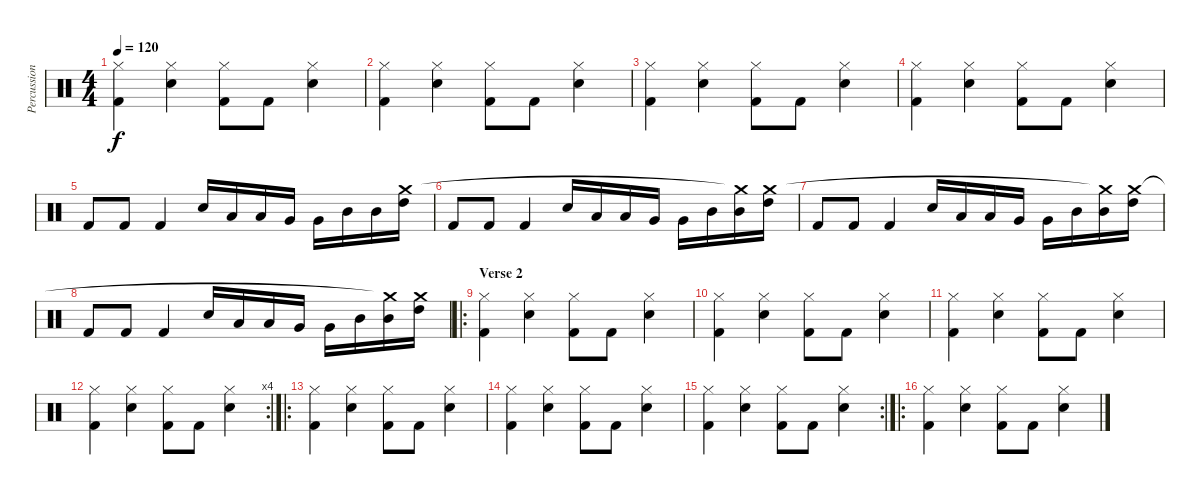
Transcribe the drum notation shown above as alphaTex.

\track ("Percussions" "Percussion") {instrument percussion}
\staff {score}
\articulation defaults
\ts (4 4)
\tempo 120
\clef neutral
\ks c
("Kick (hit) 2" "Hi-Hat (closed)").4{dy f} ("Electric Snare (hit)" "Hi-Hat (closed)").4 ("Kick (hit) 2" "Hi-Hat (closed)").8 "Kick (hit) 2".8 ("Electric Snare (hit)" "Hi-Hat (closed)").4 |
("Kick (hit) 2" "Hi-Hat (closed)").4 ("Electric Snare (hit)" "Hi-Hat (closed)").4 ("Kick (hit) 2" "Hi-Hat (closed)").8 "Kick (hit) 2".8 ("Electric Snare (hit)" "Hi-Hat (closed)").4 |
("Kick (hit) 2" "Hi-Hat (closed)").4 ("Electric Snare (hit)" "Hi-Hat (closed)").4 ("Kick (hit) 2" "Hi-Hat (closed)").8 "Kick (hit) 2".8 ("Electric Snare (hit)" "Hi-Hat (closed)").4 |
("Kick (hit) 2" "Hi-Hat (closed)").4 ("Electric Snare (hit)" "Hi-Hat (closed)").4 ("Kick (hit) 2" "Hi-Hat (closed)").8 "Kick (hit) 2".8 ("Electric Snare (hit)" "Hi-Hat (closed)").4 |
"Kick (hit) 2".8 "Kick (hit) 2".8 "Kick (hit) 2".4 "Electric Snare (hit)".16 "Low Tom (hit)".16 "Low Tom (hit)".16 "Very Low Tom (hit)".16 "Very Low Tom (hit)".16 "Mid Tom (hit)".16 "Mid Tom (hit)".16 ("High Tom (hit)" "Crash medium (hit)").16 |
"Kick (hit) 2".8 "Kick (hit) 2".8 "Kick (hit) 2".4 "Electric Snare (hit)".16 "Low Tom (hit)".16 "Low Tom (hit)".16 "Very Low Tom (hit)".16 "Very Low Tom (hit)".16 "Mid Tom (hit)".16 ("Mid Tom (hit)" "Crash medium (hit)"{t}).16 ("High Tom (hit)" "Crash medium (hit)").16 |
"Kick (hit) 2".8 "Kick (hit) 2".8 "Kick (hit) 2".4 "Electric Snare (hit)".16 "Low Tom (hit)".16 "Low Tom (hit)".16 "Very Low Tom (hit)".16 "Very Low Tom (hit)".16 "Mid Tom (hit)".16 ("Mid Tom (hit)" "Crash medium (hit)"{t}).16 ("High Tom (hit)" "Crash medium (hit)").16 |
"Kick (hit) 2".8 "Kick (hit) 2".8 "Kick (hit) 2".4 "Electric Snare (hit)".16 "Low Tom (hit)".16 "Low Tom (hit)".16 "Very Low Tom (hit)".16 "Very Low Tom (hit)".16 "Mid Tom (hit)".16 ("Mid Tom (hit)" "Crash medium (hit)"{t}).16 ("High Tom (hit)" "Crash medium (hit)").16 |
\ro
\section ("" "Verse 2")
("Kick (hit) 2" "Hi-Hat (closed)").4 ("Electric Snare (hit)" "Hi-Hat (closed)").4 ("Kick (hit) 2" "Hi-Hat (closed)").8 "Kick (hit) 2".8 ("Electric Snare (hit)" "Hi-Hat (closed)").4 |
("Kick (hit) 2" "Hi-Hat (closed)").4 ("Electric Snare (hit)" "Hi-Hat (closed)").4 ("Kick (hit) 2" "Hi-Hat (closed)").8 "Kick (hit) 2".8 ("Electric Snare (hit)" "Hi-Hat (closed)").4 |
("Kick (hit) 2" "Hi-Hat (closed)").4 ("Electric Snare (hit)" "Hi-Hat (closed)").4 ("Kick (hit) 2" "Hi-Hat (closed)").8 "Kick (hit) 2".8 ("Electric Snare (hit)" "Hi-Hat (closed)").4 |
\rc 4
("Kick (hit) 2" "Hi-Hat (closed)").4 ("Electric Snare (hit)" "Hi-Hat (closed)").4 ("Kick (hit) 2" "Hi-Hat (closed)").8 "Kick (hit) 2".8 ("Electric Snare (hit)" "Hi-Hat (closed)").4 |
\ro
("Kick (hit) 2" "Hi-Hat (closed)").4 ("Electric Snare (hit)" "Hi-Hat (closed)").4 ("Kick (hit) 2" "Hi-Hat (closed)").8 "Kick (hit) 2".8 ("Electric Snare (hit)" "Hi-Hat (closed)").4 |
("Kick (hit) 2" "Hi-Hat (closed)").4 ("Electric Snare (hit)" "Hi-Hat (closed)").4 ("Kick (hit) 2" "Hi-Hat (closed)").8 "Kick (hit) 2".8 ("Electric Snare (hit)" "Hi-Hat (closed)").4 |
\rc 2
("Kick (hit) 2" "Hi-Hat (closed)").4 ("Electric Snare (hit)" "Hi-Hat (closed)").4 ("Kick (hit) 2" "Hi-Hat (closed)").8 "Kick (hit) 2".8 ("Electric Snare (hit)" "Hi-Hat (closed)").4 |
\ro
("Kick (hit) 2" "Hi-Hat (closed)").4 ("Electric Snare (hit)" "Hi-Hat (closed)").4 ("Kick (hit) 2" "Hi-Hat (closed)").8 "Kick (hit) 2".8 ("Electric Snare (hit)" "Hi-Hat (closed)").4
